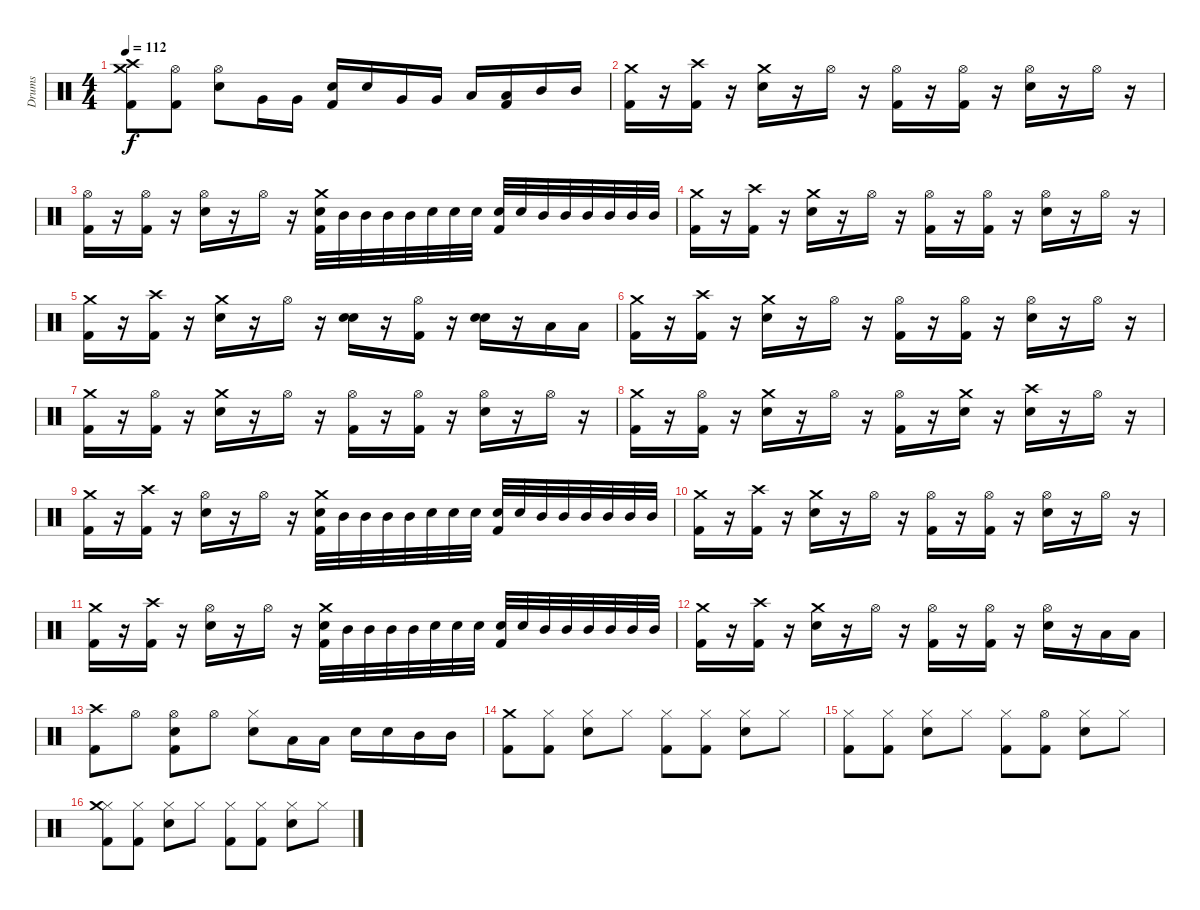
\track ("Drums" "Drums") {instrument percussion}
\staff {score}
\articulation defaults
\ts (4 4)
\tempo 112
\clef neutral
\ks c
("Crash high (hit)" "Crash medium (hit)" "Kick (hit) 2").8{dy f} ("Kick (hit) 2" "Hi-Hat (open)").8 ("Electric Snare (hit)" "Hi-Hat (open)").8 "Very Low Tom (hit)".16 "Very Low Tom (hit)".16 ("Kick (hit) 2" "Electric Snare (hit)").16 "Electric Snare (hit)".16 "Very Low Tom (hit)".16 "Very Low Tom (hit)".16 "Low Tom (hit)".16 ("Low Tom (hit)" "Kick (hit) 2").16 "Mid Tom (hit)".16 "Mid Tom (hit)".16 |
("Kick (hit) 2" "Crash medium (hit)").16 r.16 ("Kick (hit) 2" "Crash high (hit)").16 r.16 ("Crash medium (hit)" "Electric Snare (hit)").16 r.16 "Hi-Hat (open)".16 r.16 ("Kick (hit) 2" "Hi-Hat (open)").16 r.16 ("Kick (hit) 2" "Hi-Hat (open)").16 r.16 ("Electric Snare (hit)" "Hi-Hat (open)").16 r.16 "Hi-Hat (open)".16 r.16 |
("Kick (hit) 2" "Hi-Hat (open)").16 r.16 ("Kick (hit) 2" "Hi-Hat (open)").16 r.16 ("Electric Snare (hit)" "Hi-Hat (open)").16 r.16 "Hi-Hat (open)".16 r.16 ("Kick (hit) 2" "Electric Snare (hit)" "Crash medium (hit)").32 "Mid Tom (hit)".32 "Mid Tom (hit)".32 "Mid Tom (hit)".32 "Mid Tom (hit)".32 "Electric Snare (hit)".32 "Electric Snare (hit)".32 "Electric Snare (hit)".32 ("Kick (hit) 2" "Electric Snare (hit)").32 "Electric Snare (hit)".32 "Mid Tom (hit)".32 "Mid Tom (hit)".32 "Mid Tom (hit)".32 "Mid Tom (hit)".32 "Mid Tom (hit)".32 "Mid Tom (hit)".32 |
("Kick (hit) 2" "Crash medium (hit)").16 r.16 ("Kick (hit) 2" "Crash high (hit)").16 r.16 ("Crash medium (hit)" "Electric Snare (hit)").16 r.16 "Hi-Hat (open)".16 r.16 ("Kick (hit) 2" "Hi-Hat (open)").16 r.16 ("Kick (hit) 2" "Hi-Hat (open)").16 r.16 ("Electric Snare (hit)" "Hi-Hat (open)").16 r.16 "Hi-Hat (open)".16 r.16 |
("Kick (hit) 2" "Crash medium (hit)").16 r.16 ("Kick (hit) 2" "Crash high (hit)").16 r.16 ("Crash medium (hit)" "Electric Snare (hit)").16 r.16 "Hi-Hat (open)".16 r.16 ("Electric Snare (hit)" "Electric Snare (hit)").16 r.16 ("Kick (hit) 2" "Hi-Hat (open)").16 r.16 ("Electric Snare (hit)" "Electric Snare (hit)").16 r.16 "Low Tom (hit)".16 "Low Tom (hit)".16 |
("Kick (hit) 2" "Crash medium (hit)").16 r.16 ("Kick (hit) 2" "Crash high (hit)").16 r.16 ("Crash medium (hit)" "Electric Snare (hit)").16 r.16 "Hi-Hat (open)".16 r.16 ("Kick (hit) 2" "Hi-Hat (open)").16 r.16 ("Kick (hit) 2" "Hi-Hat (open)").16 r.16 ("Electric Snare (hit)" "Hi-Hat (open)").16 r.16 "Hi-Hat (open)".16 r.16 |
("Kick (hit) 2" "Crash medium (hit)").16 r.16 ("Kick (hit) 2" "Hi-Hat (open)").16 r.16 ("Crash medium (hit)" "Electric Snare (hit)").16 r.16 "Hi-Hat (open)".16 r.16 ("Kick (hit) 2" "Hi-Hat (open)").16 r.16 ("Kick (hit) 2" "Hi-Hat (open)").16 r.16 ("Electric Snare (hit)" "Hi-Hat (open)").16 r.16 "Hi-Hat (open)".16 r.16 |
("Kick (hit) 2" "Crash medium (hit)").16 r.16 ("Kick (hit) 2" "Hi-Hat (open)").16 r.16 ("Crash medium (hit)" "Electric Snare (hit)").16 r.16 "Hi-Hat (open)".16 r.16 ("Kick (hit) 2" "Hi-Hat (open)").16 r.16 ("Electric Snare (hit)" "Crash medium (hit)").16 r.16 ("Electric Snare (hit)" "Crash high (hit)").16 r.16 "Hi-Hat (open)".16 r.16 |
("Kick (hit) 2" "Crash medium (hit)").16 r.16 ("Kick (hit) 2" "Crash high (hit)").16 r.16 ("Electric Snare (hit)" "Hi-Hat (open)").16 r.16 "Hi-Hat (open)".16 r.16 ("Kick (hit) 2" "Electric Snare (hit)" "Crash medium (hit)").32 "Mid Tom (hit)".32 "Mid Tom (hit)".32 "Mid Tom (hit)".32 "Mid Tom (hit)".32 "Electric Snare (hit)".32 "Electric Snare (hit)".32 "Electric Snare (hit)".32 ("Kick (hit) 2" "Electric Snare (hit)").32 "Electric Snare (hit)".32 "Mid Tom (hit)".32 "Mid Tom (hit)".32 "Mid Tom (hit)".32 "Mid Tom (hit)".32 "Mid Tom (hit)".32 "Mid Tom (hit)".32 |
("Kick (hit) 2" "Crash medium (hit)").16 r.16 ("Kick (hit) 2" "Crash high (hit)").16 r.16 ("Crash medium (hit)" "Electric Snare (hit)").16 r.16 "Hi-Hat (open)".16 r.16 ("Kick (hit) 2" "Hi-Hat (open)").16 r.16 ("Kick (hit) 2" "Hi-Hat (open)").16 r.16 ("Electric Snare (hit)" "Hi-Hat (open)").16 r.16 "Hi-Hat (open)".16 r.16 |
("Kick (hit) 2" "Crash medium (hit)").16 r.16 ("Kick (hit) 2" "Crash high (hit)").16 r.16 ("Electric Snare (hit)" "Hi-Hat (open)").16 r.16 "Hi-Hat (open)".16 r.16 ("Kick (hit) 2" "Electric Snare (hit)" "Crash medium (hit)").32 "Mid Tom (hit)".32 "Mid Tom (hit)".32 "Mid Tom (hit)".32 "Mid Tom (hit)".32 "Electric Snare (hit)".32 "Electric Snare (hit)".32 "Electric Snare (hit)".32 ("Kick (hit) 2" "Electric Snare (hit)").32 "Electric Snare (hit)".32 "Mid Tom (hit)".32 "Mid Tom (hit)".32 "Mid Tom (hit)".32 "Mid Tom (hit)".32 "Mid Tom (hit)".32 "Mid Tom (hit)".32 |
("Kick (hit) 2" "Crash medium (hit)").16 r.16 ("Kick (hit) 2" "Crash high (hit)").16 r.16 ("Crash medium (hit)" "Electric Snare (hit)").16 r.16 "Hi-Hat (open)".16 r.16 ("Kick (hit) 2" "Hi-Hat (open)").16 r.16 ("Kick (hit) 2" "Hi-Hat (open)").16 r.16 ("Electric Snare (hit)" "Hi-Hat (open)").16 r.16 "Low Tom (hit)".16 "Low Tom (hit)".16 |
("Kick (hit) 2" "Crash high (hit)").8 "Hi-Hat (open)".8 ("Electric Snare (hit)" "Hi-Hat (open)" "Kick (hit) 2").8 "Hi-Hat (open)".8 ("Electric Snare (hit)" "Hi-Hat (closed)").8 "Low Tom (hit)".16 "Low Tom (hit)".16 "Electric Snare (hit)".16 "Electric Snare (hit)".16 "Mid Tom (hit)".16 "Mid Tom (hit)".16 |
("Kick (hit) 2" "Crash medium (hit)").8 ("Kick (hit) 2" "Hi-Hat (closed)").8 ("Electric Snare (hit)" "Hi-Hat (closed)").8 "Hi-Hat (closed)".8 ("Kick (hit) 2" "Hi-Hat (closed)").8 ("Kick (hit) 2" "Hi-Hat (closed)").8 ("Electric Snare (hit)" "Hi-Hat (closed)").8 "Hi-Hat (closed)".8 |
("Kick (hit) 2" "Hi-Hat (closed)").8 ("Kick (hit) 2" "Hi-Hat (closed)").8 ("Electric Snare (hit)" "Hi-Hat (closed)").8 "Hi-Hat (closed)".8 ("Kick (hit) 2" "Hi-Hat (closed)").8 ("Kick (hit) 2" "Hi-Hat (open)").8 ("Electric Snare (hit)" "Hi-Hat (closed)").8 "Hi-Hat (closed)".8 |
("Hi-Hat (closed)" "Kick (hit) 2" "Crash medium (hit)").8 ("Kick (hit) 2" "Hi-Hat (closed)").8 ("Electric Snare (hit)" "Hi-Hat (closed)").8 "Hi-Hat (closed)".8 ("Kick (hit) 2" "Hi-Hat (closed)").8 ("Kick (hit) 2" "Hi-Hat (closed)").8 ("Electric Snare (hit)" "Hi-Hat (closed)").8 "Hi-Hat (closed)".8
